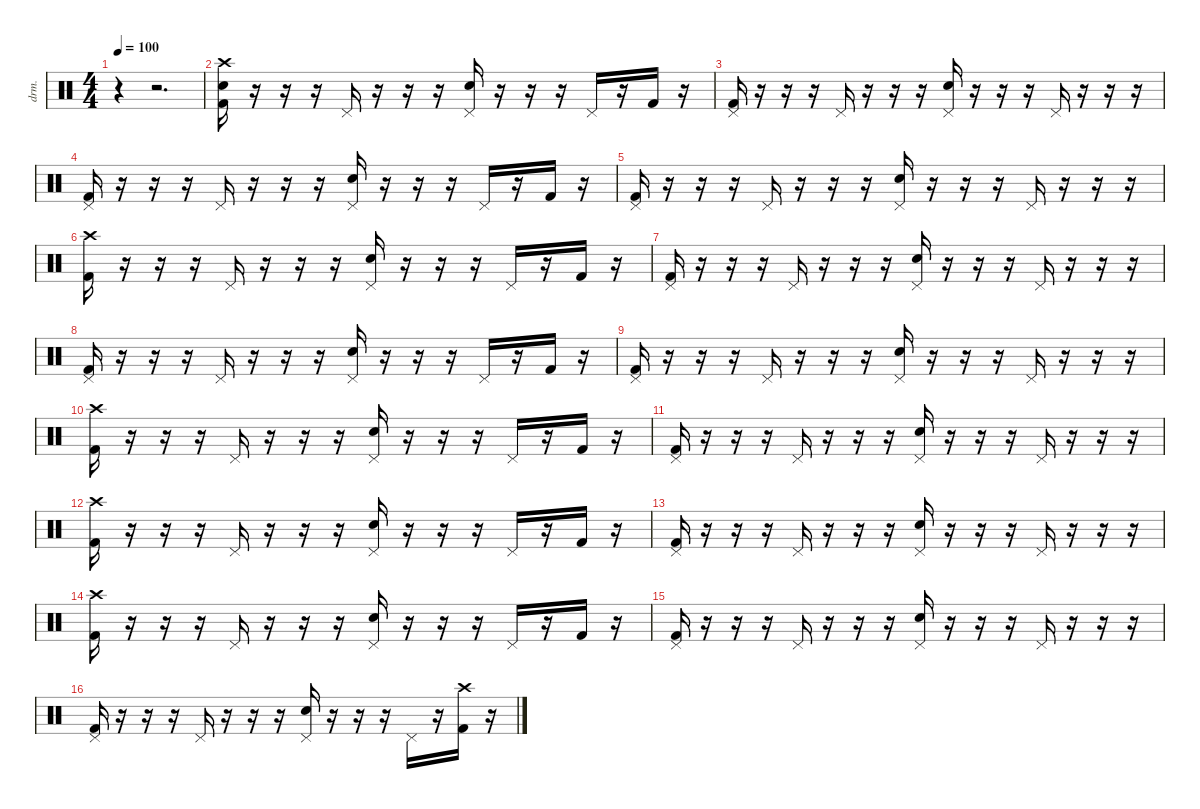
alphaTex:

\defaultSystemsLayout 4
\hideDynamics
\bracketExtendMode nobrackets
\otherSystemsTrackNameOrientation horizontal
\track ("Drums" "drm.") {instrument percussion}
\staff {score}
\articulation defaults
\ts (4 4)
\beaming (8 2 2 2 2)
\tempo 100
\clef neutral
\ks c
r.4{dy ff beam Down} r.2{d beam Down} |
("Kick (hit) 2" "Snare (hit) 2" "Crash high (hit)").16{beam Down} r.16{beam Down} r.16{beam Down} r.16{beam Down} "Pedal Hi-Hat (hit)".16{beam Up} r.16{beam Up} r.16{beam Up} r.16{beam Up} ("Snare (hit) 2" "Pedal Hi-Hat (hit)").16{beam Up} r.16{beam Up} r.16{beam Up} r.16{beam Up} "Pedal Hi-Hat (hit)".16{beam Up} r.16{beam Up} "Kick (hit) 2".16{beam Up} r.16{beam Up} |
("Kick (hit) 2" "Pedal Hi-Hat (hit)").16{beam Up} r.16{beam Up} r.16{beam Up} r.16{beam Up} "Pedal Hi-Hat (hit)".16{beam Up} r.16{beam Up} r.16{beam Up} r.16{beam Up} ("Snare (hit) 2" "Pedal Hi-Hat (hit)").16{beam Up} r.16{beam Up} r.16{beam Up} r.16{beam Up} "Pedal Hi-Hat (hit)".16{beam Up} r.16{beam Up} r.16{beam Up} r.16{beam Up} |
("Kick (hit) 2" "Pedal Hi-Hat (hit)").16{beam Up} r.16{beam Up} r.16{beam Up} r.16{beam Up} "Pedal Hi-Hat (hit)".16{beam Up} r.16{beam Up} r.16{beam Up} r.16{beam Up} ("Snare (hit) 2" "Pedal Hi-Hat (hit)").16{beam Up} r.16{beam Up} r.16{beam Up} r.16{beam Up} "Pedal Hi-Hat (hit)".16{beam Up} r.16{beam Up} "Kick (hit) 2".16{beam Up} r.16{beam Up} |
("Kick (hit) 2" "Pedal Hi-Hat (hit)").16{beam Up} r.16{beam Up} r.16{beam Up} r.16{beam Up} "Pedal Hi-Hat (hit)".16{beam Up} r.16{beam Up} r.16{beam Up} r.16{beam Up} ("Snare (hit) 2" "Pedal Hi-Hat (hit)").16{beam Up} r.16{beam Up} r.16{beam Up} r.16{beam Up} "Pedal Hi-Hat (hit)".16{beam Up} r.16{beam Up} r.16{beam Up} r.16{beam Up} |
("Kick (hit) 2" "Crash high (hit)").16{beam Down} r.16{beam Down} r.16{beam Down} r.16{beam Down} "Pedal Hi-Hat (hit)".16{beam Up} r.16{beam Up} r.16{beam Up} r.16{beam Up} ("Snare (hit) 2" "Pedal Hi-Hat (hit)").16{beam Up} r.16{beam Up} r.16{beam Up} r.16{beam Up} "Pedal Hi-Hat (hit)".16{beam Up} r.16{beam Up} "Kick (hit) 2".16{beam Up} r.16{beam Up} |
("Kick (hit) 2" "Pedal Hi-Hat (hit)").16{beam Up} r.16{beam Up} r.16{beam Up} r.16{beam Up} "Pedal Hi-Hat (hit)".16{beam Up} r.16{beam Up} r.16{beam Up} r.16{beam Up} ("Snare (hit) 2" "Pedal Hi-Hat (hit)").16{beam Up} r.16{beam Up} r.16{beam Up} r.16{beam Up} "Pedal Hi-Hat (hit)".16{beam Up} r.16{beam Up} r.16{beam Up} r.16{beam Up} |
("Kick (hit) 2" "Pedal Hi-Hat (hit)").16{beam Up} r.16{beam Up} r.16{beam Up} r.16{beam Up} "Pedal Hi-Hat (hit)".16{beam Up} r.16{beam Up} r.16{beam Up} r.16{beam Up} ("Snare (hit) 2" "Pedal Hi-Hat (hit)").16{beam Up} r.16{beam Up} r.16{beam Up} r.16{beam Up} "Pedal Hi-Hat (hit)".16{beam Up} r.16{beam Up} "Kick (hit) 2".16{beam Up} r.16{beam Up} |
("Kick (hit) 2" "Pedal Hi-Hat (hit)").16{beam Up} r.16{beam Up} r.16{beam Up} r.16{beam Up} "Pedal Hi-Hat (hit)".16{beam Up} r.16{beam Up} r.16{beam Up} r.16{beam Up} ("Snare (hit) 2" "Pedal Hi-Hat (hit)").16{beam Up} r.16{beam Up} r.16{beam Up} r.16{beam Up} "Pedal Hi-Hat (hit)".16{beam Up} r.16{beam Up} r.16{beam Up} r.16{beam Up} |
("Kick (hit) 2" "Crash high (hit)").16{beam Down} r.16{beam Down} r.16{beam Down} r.16{beam Down} "Pedal Hi-Hat (hit)".16{beam Up} r.16{beam Up} r.16{beam Up} r.16{beam Up} ("Snare (hit) 2" "Pedal Hi-Hat (hit)").16{beam Up} r.16{beam Up} r.16{beam Up} r.16{beam Up} "Pedal Hi-Hat (hit)".16{beam Up} r.16{beam Up} "Kick (hit) 2".16{beam Up} r.16{beam Up} |
("Kick (hit) 2" "Pedal Hi-Hat (hit)").16{beam Up} r.16{beam Up} r.16{beam Up} r.16{beam Up} "Pedal Hi-Hat (hit)".16{beam Up} r.16{beam Up} r.16{beam Up} r.16{beam Up} ("Snare (hit) 2" "Pedal Hi-Hat (hit)").16{beam Up} r.16{beam Up} r.16{beam Up} r.16{beam Up} "Pedal Hi-Hat (hit)".16{beam Up} r.16{beam Up} r.16{beam Up} r.16{beam Up} |
("Kick (hit) 2" "Crash high (hit)").16{beam Down} r.16{beam Down} r.16{beam Down} r.16{beam Down} "Pedal Hi-Hat (hit)".16{beam Up} r.16{beam Up} r.16{beam Up} r.16{beam Up} ("Snare (hit) 2" "Pedal Hi-Hat (hit)").16{beam Up} r.16{beam Up} r.16{beam Up} r.16{beam Up} "Pedal Hi-Hat (hit)".16{beam Up} r.16{beam Up} "Kick (hit) 2".16{beam Up} r.16{beam Up} |
("Kick (hit) 2" "Pedal Hi-Hat (hit)").16{beam Up} r.16{beam Up} r.16{beam Up} r.16{beam Up} "Pedal Hi-Hat (hit)".16{beam Up} r.16{beam Up} r.16{beam Up} r.16{beam Up} ("Snare (hit) 2" "Pedal Hi-Hat (hit)").16{beam Up} r.16{beam Up} r.16{beam Up} r.16{beam Up} "Pedal Hi-Hat (hit)".16{beam Up} r.16{beam Up} r.16{beam Up} r.16{beam Up} |
("Kick (hit) 2" "Crash high (hit)").16{beam Down} r.16{beam Down} r.16{beam Down} r.16{beam Down} "Pedal Hi-Hat (hit)".16{beam Up} r.16{beam Up} r.16{beam Up} r.16{beam Up} ("Snare (hit) 2" "Pedal Hi-Hat (hit)").16{beam Up} r.16{beam Up} r.16{beam Up} r.16{beam Up} "Pedal Hi-Hat (hit)".16{beam Up} r.16{beam Up} "Kick (hit) 2".16{beam Up} r.16{beam Up} |
("Kick (hit) 2" "Pedal Hi-Hat (hit)").16{beam Up} r.16{beam Up} r.16{beam Up} r.16{beam Up} "Pedal Hi-Hat (hit)".16{beam Up} r.16{beam Up} r.16{beam Up} r.16{beam Up} ("Snare (hit) 2" "Pedal Hi-Hat (hit)").16{beam Up} r.16{beam Up} r.16{beam Up} r.16{beam Up} "Pedal Hi-Hat (hit)".16{beam Up} r.16{beam Up} r.16{beam Up} r.16{beam Up} |
("Kick (hit) 2" "Pedal Hi-Hat (hit)").16{beam Up} r.16{beam Up} r.16{beam Up} r.16{beam Up} "Pedal Hi-Hat (hit)".16{beam Up} r.16{beam Up} r.16{beam Up} r.16{beam Up} ("Snare (hit) 2" "Pedal Hi-Hat (hit)").16{beam Up} r.16{beam Up} r.16{beam Up} r.16{beam Up} "Pedal Hi-Hat (hit)".16{beam Down} r.16{beam Down} ("Kick (hit) 2" "Crash high (hit)").16{beam Down} r.16{beam Down}
